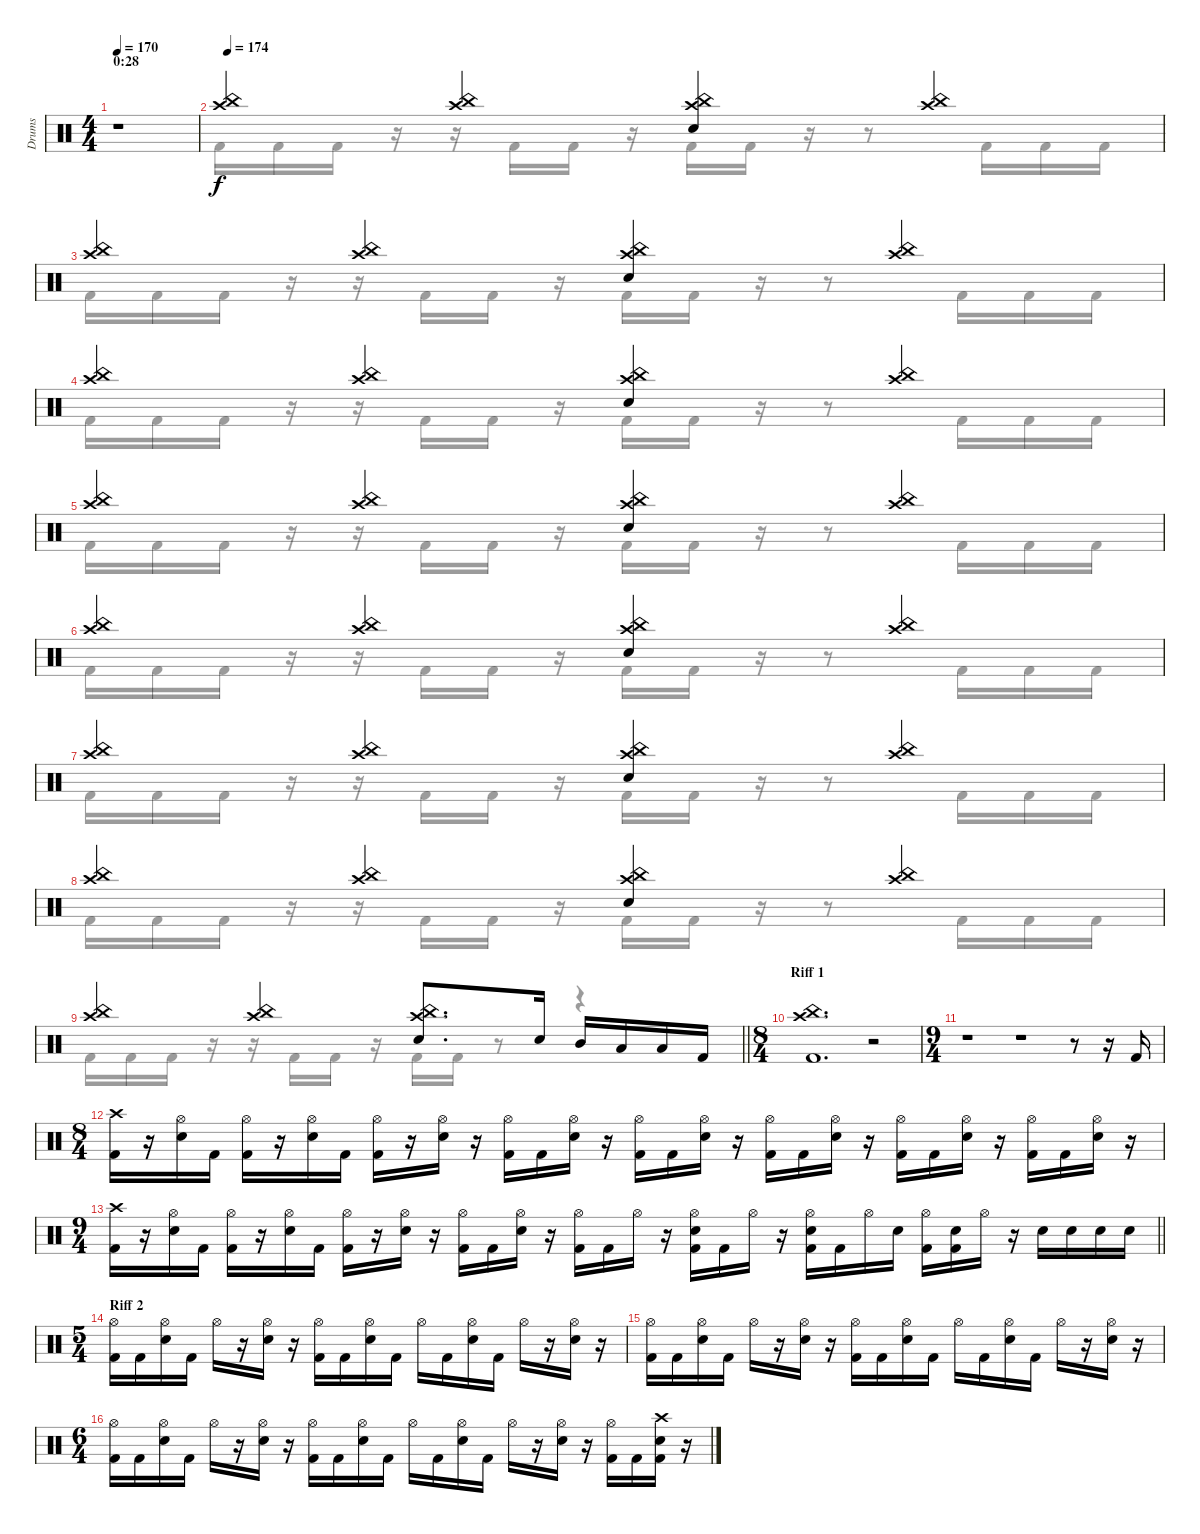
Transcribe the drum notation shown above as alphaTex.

\track ("Drums" "Drums") {instrument percussion}
\staff {score}
\articulation defaults
\voice
\ts (4 4)
\section ("" "0:28")
\tempo 170
\clef neutral
\ks c
r.1{dy f} |
\tempo 174
("China (hit)" "Crash high (hit)").4 ("China (hit)" "Crash high (hit)").4 ("China (hit)" "Crash high (hit)" "Electric Snare (hit)").4 ("China (hit)" "Crash high (hit)").4 |
("China (hit)" "Crash high (hit)").4 ("China (hit)" "Crash high (hit)").4 ("China (hit)" "Crash high (hit)" "Electric Snare (hit)").4 ("China (hit)" "Crash high (hit)").4 |
("China (hit)" "Crash high (hit)").4 ("China (hit)" "Crash high (hit)").4 ("China (hit)" "Crash high (hit)" "Electric Snare (hit)").4 ("China (hit)" "Crash high (hit)").4 |
("China (hit)" "Crash high (hit)").4 ("China (hit)" "Crash high (hit)").4 ("China (hit)" "Crash high (hit)" "Electric Snare (hit)").4 ("China (hit)" "Crash high (hit)").4 |
("China (hit)" "Crash high (hit)").4 ("China (hit)" "Crash high (hit)").4 ("China (hit)" "Crash high (hit)" "Electric Snare (hit)").4 ("China (hit)" "Crash high (hit)").4 |
("China (hit)" "Crash high (hit)").4 ("China (hit)" "Crash high (hit)").4 ("China (hit)" "Crash high (hit)" "Electric Snare (hit)").4 ("China (hit)" "Crash high (hit)").4 |
("China (hit)" "Crash high (hit)").4 ("China (hit)" "Crash high (hit)").4 ("China (hit)" "Crash high (hit)" "Electric Snare (hit)").4 ("China (hit)" "Crash high (hit)").4 |
\barLineRight lightlight
("China (hit)" "Crash high (hit)").4 ("China (hit)" "Crash high (hit)").4 ("China (hit)" "Crash high (hit)" "Electric Snare (hit)").8{d} "Electric Snare (hit)".16 "Mid Tom (hit)".16 "Low Tom (hit)".16 "Low Floor Tom (hit)".16 "Kick (hit) 2".16 |
\ts (8 4)
\section ("" "Riff 1")
("China (hit)" "Crash high (hit)" "Kick (hit) 2").1{d} r.2 |
\ts (9 4)
r.1 r.1 r.8 r.16 "Kick (hit) 2".16 |
\ts (8 4)
("Crash high (hit)" "Kick (hit) 2").16 r.16 ("Hi-Hat (open)" "Electric Snare (hit)").16 "Kick (hit) 2".16 ("Hi-Hat (open)" "Kick (hit) 2").16 r.16 ("Hi-Hat (open)" "Electric Snare (hit)").16 "Kick (hit) 2".16 ("Hi-Hat (open)" "Kick (hit) 2").16 r.16 ("Hi-Hat (open)" "Electric Snare (hit)").16 r.16 ("Hi-Hat (open)" "Kick (hit) 2").16 "Kick (hit) 2".16 ("Hi-Hat (open)" "Electric Snare (hit)").16 r.16 ("Hi-Hat (open)" "Kick (hit) 2").16 "Kick (hit) 2".16 ("Hi-Hat (open)" "Electric Snare (hit)").16 r.16 ("Hi-Hat (open)" "Kick (hit) 2").16 "Kick (hit) 2".16 ("Hi-Hat (open)" "Electric Snare (hit)").16 r.16 ("Hi-Hat (open)" "Kick (hit) 2").16 "Kick (hit) 2".16 ("Hi-Hat (open)" "Electric Snare (hit)").16 r.16 ("Hi-Hat (open)" "Kick (hit) 2").16 "Kick (hit) 2".16 ("Hi-Hat (open)" "Electric Snare (hit)").16 r.16 |
\ts (9 4)
\barLineRight lightlight
("Crash high (hit)" "Kick (hit) 2").16 r.16 ("Hi-Hat (open)" "Electric Snare (hit)").16 "Kick (hit) 2".16 ("Hi-Hat (open)" "Kick (hit) 2").16 r.16 ("Hi-Hat (open)" "Electric Snare (hit)").16 "Kick (hit) 2".16 ("Hi-Hat (open)" "Kick (hit) 2").16 r.16 ("Hi-Hat (open)" "Electric Snare (hit)").16 r.16 ("Hi-Hat (open)" "Kick (hit) 2").16 "Kick (hit) 2".16 ("Hi-Hat (open)" "Electric Snare (hit)").16 r.16 ("Hi-Hat (open)" "Kick (hit) 2").16 "Kick (hit) 2".16 "Hi-Hat (open)".16 r.16 ("Hi-Hat (open)" "Electric Snare (hit)" "Kick (hit) 2").16 "Kick (hit) 2".16 "Hi-Hat (open)".16 r.16 ("Hi-Hat (open)" "Electric Snare (hit)" "Kick (hit) 2").16 "Kick (hit) 2".16 "Hi-Hat (open)".16 "Electric Snare (hit)".16 ("Hi-Hat (open)" "Kick (hit) 2").16 ("Electric Snare (hit)" "Kick (hit) 2").16 "Hi-Hat (open)".16 r.16 "Electric Snare (hit)".16 "Electric Snare (hit)".16 "Electric Snare (hit)".16 "Electric Snare (hit)".16 |
\ts (5 4)
\section ("" "Riff 2")
("Hi-Hat (open)" "Kick (hit) 2").16 "Kick (hit) 2".16 ("Hi-Hat (open)" "Electric Snare (hit)").16 "Kick (hit) 2".16 "Hi-Hat (open)".16 r.16 ("Hi-Hat (open)" "Electric Snare (hit)").16 r.16 ("Hi-Hat (open)" "Kick (hit) 2").16 "Kick (hit) 2".16 ("Hi-Hat (open)" "Electric Snare (hit)").16 "Kick (hit) 2".16 "Hi-Hat (open)".16 "Kick (hit) 2".16 ("Hi-Hat (open)" "Electric Snare (hit)").16 "Kick (hit) 2".16 "Hi-Hat (open)".16 r.16 ("Hi-Hat (open)" "Electric Snare (hit)").16 r.16 |
("Hi-Hat (open)" "Kick (hit) 2").16 "Kick (hit) 2".16 ("Hi-Hat (open)" "Electric Snare (hit)").16 "Kick (hit) 2".16 "Hi-Hat (open)".16 r.16 ("Hi-Hat (open)" "Electric Snare (hit)").16 r.16 ("Hi-Hat (open)" "Kick (hit) 2").16 "Kick (hit) 2".16 ("Hi-Hat (open)" "Electric Snare (hit)").16 "Kick (hit) 2".16 "Hi-Hat (open)".16 "Kick (hit) 2".16 ("Hi-Hat (open)" "Electric Snare (hit)").16 "Kick (hit) 2".16 "Hi-Hat (open)".16 r.16 ("Hi-Hat (open)" "Electric Snare (hit)").16 r.16 |
\ts (6 4)
("Hi-Hat (open)" "Kick (hit) 2").16 "Kick (hit) 2".16 ("Hi-Hat (open)" "Electric Snare (hit)").16 "Kick (hit) 2".16 "Hi-Hat (open)".16 r.16 ("Hi-Hat (open)" "Electric Snare (hit)").16 r.16 ("Hi-Hat (open)" "Kick (hit) 2").16 "Kick (hit) 2".16 ("Hi-Hat (open)" "Electric Snare (hit)").16 "Kick (hit) 2".16 "Hi-Hat (open)".16 "Kick (hit) 2".16 ("Hi-Hat (open)" "Electric Snare (hit)").16 "Kick (hit) 2".16 "Hi-Hat (open)".16 r.16 ("Hi-Hat (open)" "Electric Snare (hit)").16 r.16 ("Hi-Hat (open)" "Kick (hit) 2").16 "Kick (hit) 2".16 ("Crash high (hit)" "Electric Snare (hit)" "Kick (hit) 2").16 r.16
\voice
\clef neutral
\ottava regular
\simile none
\ks c
|
"Kick (hit) 2".16 "Kick (hit) 2".16 "Kick (hit) 2".16 r.16 r.16 "Kick (hit) 2".16 "Kick (hit) 2".16 r.16 "Kick (hit) 2".16 "Kick (hit) 2".16 r.16 r.8 "Kick (hit) 2".16 "Kick (hit) 2".16 "Kick (hit) 2".16 |
"Kick (hit) 2".16 "Kick (hit) 2".16 "Kick (hit) 2".16 r.16 r.16 "Kick (hit) 2".16 "Kick (hit) 2".16 r.16 "Kick (hit) 2".16 "Kick (hit) 2".16 r.16 r.8 "Kick (hit) 2".16 "Kick (hit) 2".16 "Kick (hit) 2".16 |
"Kick (hit) 2".16 "Kick (hit) 2".16 "Kick (hit) 2".16 r.16 r.16 "Kick (hit) 2".16 "Kick (hit) 2".16 r.16 "Kick (hit) 2".16 "Kick (hit) 2".16 r.16 r.8 "Kick (hit) 2".16 "Kick (hit) 2".16 "Kick (hit) 2".16 |
"Kick (hit) 2".16 "Kick (hit) 2".16 "Kick (hit) 2".16 r.16 r.16 "Kick (hit) 2".16 "Kick (hit) 2".16 r.16 "Kick (hit) 2".16 "Kick (hit) 2".16 r.16 r.8 "Kick (hit) 2".16 "Kick (hit) 2".16 "Kick (hit) 2".16 |
"Kick (hit) 2".16 "Kick (hit) 2".16 "Kick (hit) 2".16 r.16 r.16 "Kick (hit) 2".16 "Kick (hit) 2".16 r.16 "Kick (hit) 2".16 "Kick (hit) 2".16 r.16 r.8 "Kick (hit) 2".16 "Kick (hit) 2".16 "Kick (hit) 2".16 |
"Kick (hit) 2".16 "Kick (hit) 2".16 "Kick (hit) 2".16 r.16 r.16 "Kick (hit) 2".16 "Kick (hit) 2".16 r.16 "Kick (hit) 2".16 "Kick (hit) 2".16 r.16 r.8 "Kick (hit) 2".16 "Kick (hit) 2".16 "Kick (hit) 2".16 |
"Kick (hit) 2".16 "Kick (hit) 2".16 "Kick (hit) 2".16 r.16 r.16 "Kick (hit) 2".16 "Kick (hit) 2".16 r.16 "Kick (hit) 2".16 "Kick (hit) 2".16 r.16 r.8 "Kick (hit) 2".16 "Kick (hit) 2".16 "Kick (hit) 2".16 |
\barLineRight lightlight "Kick (hit) 2".16 "Kick (hit) 2".16 "Kick (hit) 2".16
r.16 r.16 "Kick (hit) 2".16 "Kick (hit) 2".16 r.16 "Kick (hit) 2".16 "Kick (hit) 2".16 r.8 r.4 |
|
|
|
\barLineRight lightlight
|
|
|
